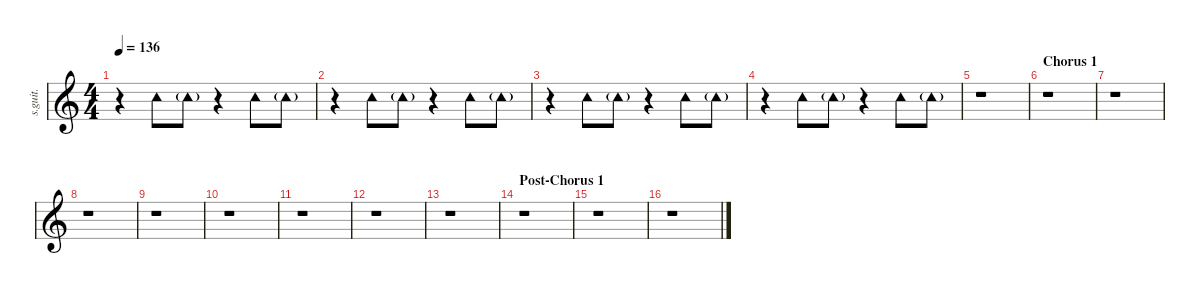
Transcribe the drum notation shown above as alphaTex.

\defaultSystemsLayout 4
\hideDynamics
\bracketExtendMode nobrackets
\track ("Tambourine" "s.guit.") {instrument percussion}
\staff {score}
\articulation defaults
\ts (4 4)
\tempo 136
\clef g2
\ks c
r.4{dy mf} "Tambourine (hit)".8{lyrics (0 "") lyrics (1 "") lyrics (2 "") lyrics (3 "") lyrics (4 "")} "Tambourine (hit)"{g}.8{lyrics (0 "") lyrics (1 "") lyrics (2 "") lyrics (3 "") lyrics (4 "")} r.4 "Tambourine (hit)".8{lyrics (0 "") lyrics (1 "") lyrics (2 "") lyrics (3 "") lyrics (4 "")} "Tambourine (hit)"{g}.8{lyrics (0 "") lyrics (1 "") lyrics (2 "") lyrics (3 "") lyrics (4 "")} |
r.4 "Tambourine (hit)".8{lyrics (0 "") lyrics (1 "") lyrics (2 "") lyrics (3 "") lyrics (4 "")} "Tambourine (hit)"{g}.8{lyrics (0 "") lyrics (1 "") lyrics (2 "") lyrics (3 "") lyrics (4 "")} r.4 "Tambourine (hit)".8{lyrics (0 "") lyrics (1 "") lyrics (2 "") lyrics (3 "") lyrics (4 "")} "Tambourine (hit)"{g}.8{lyrics (0 "") lyrics (1 "") lyrics (2 "") lyrics (3 "") lyrics (4 "")} |
r.4 "Tambourine (hit)".8{lyrics (0 "") lyrics (1 "") lyrics (2 "") lyrics (3 "") lyrics (4 "")} "Tambourine (hit)"{g}.8{lyrics (0 "") lyrics (1 "") lyrics (2 "") lyrics (3 "") lyrics (4 "")} r.4 "Tambourine (hit)".8{lyrics (0 "") lyrics (1 "") lyrics (2 "") lyrics (3 "") lyrics (4 "")} "Tambourine (hit)"{g}.8{lyrics (0 "") lyrics (1 "") lyrics (2 "") lyrics (3 "") lyrics (4 "")} |
r.4 "Tambourine (hit)".8{lyrics (0 "") lyrics (1 "") lyrics (2 "") lyrics (3 "") lyrics (4 "")} "Tambourine (hit)"{g}.8{lyrics (0 "") lyrics (1 "") lyrics (2 "") lyrics (3 "") lyrics (4 "")} r.4 "Tambourine (hit)".8{lyrics (0 "") lyrics (1 "") lyrics (2 "") lyrics (3 "") lyrics (4 "")} "Tambourine (hit)"{g}.8{lyrics (0 "") lyrics (1 "") lyrics (2 "") lyrics (3 "") lyrics (4 "")} |
r.1 |
\section ("" "Chorus 1")
r.1 |
r.1 |
r.1 |
r.1 |
r.1 |
r.1 |
r.1 |
r.1 |
\section ("" "Post-Chorus 1")
r.1 |
r.1 |
r.1
